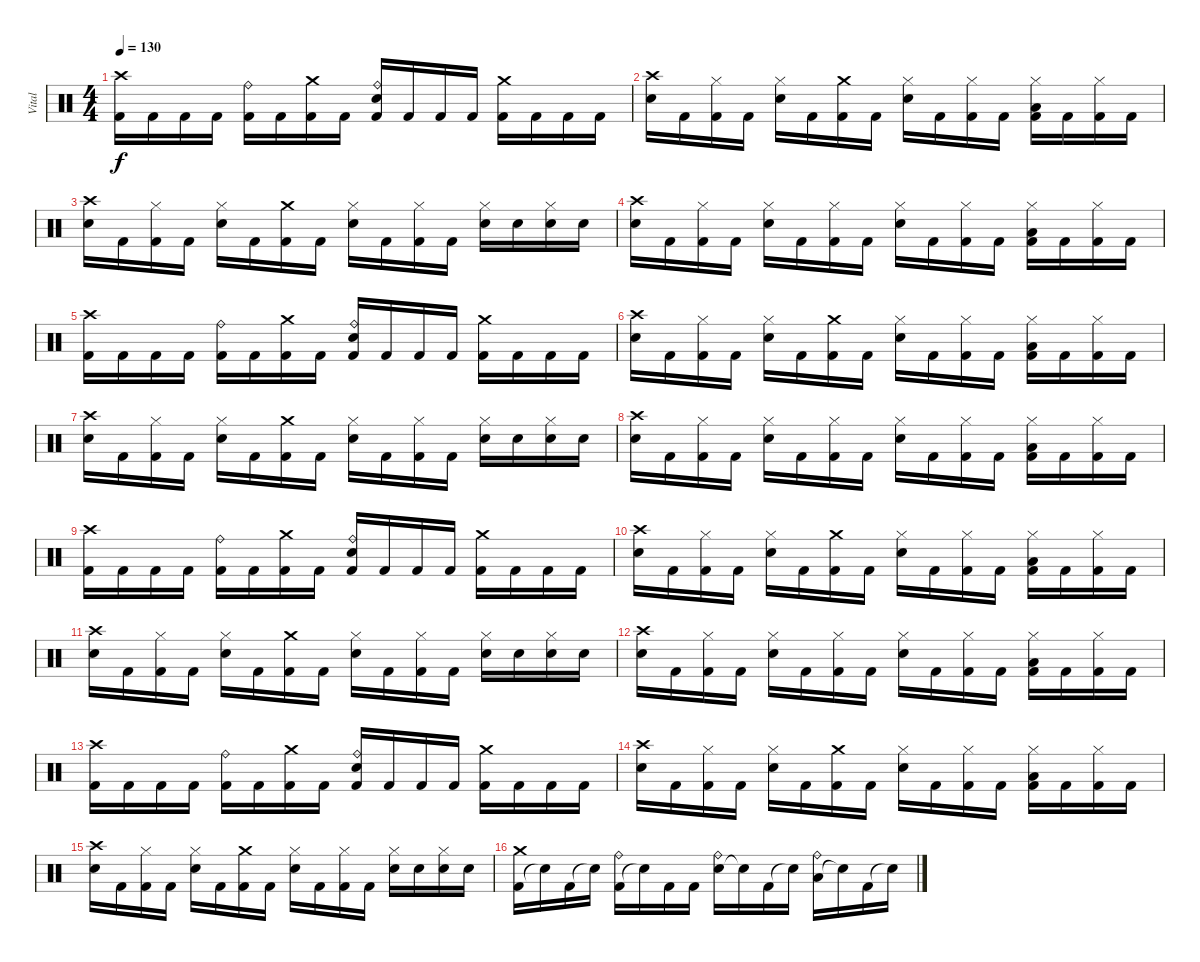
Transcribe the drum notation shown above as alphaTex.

\track ("Vital" "Vital") {instrument percussion}
\staff {score}
\articulation defaults
\ts (4 4)
\tempo 130
\clef neutral
\ks c
("Kick (hit) 2" "Crash high (hit)").16{dy f} "Kick (hit) 2".16 "Kick (hit) 2".16 "Kick (hit) 2".16 ("Kick (hit) 2" "Ride (bell)").16 "Kick (hit) 2".16 ("Kick (hit) 2" "Crash medium (hit)").16 "Kick (hit) 2".16 ("Kick (hit) 2" "Snare (hit) 2" "Ride (bell)").16 "Kick (hit) 2".16 "Kick (hit) 2".16 "Kick (hit) 2".16 ("Kick (hit) 2" "Crash medium (hit)").16 "Kick (hit) 2".16 "Kick (hit) 2".16 "Kick (hit) 2".16 |
("Snare (hit) 2" "Crash high (hit)").16 "Kick (hit) 2".16 ("Kick (hit) 2" "Hi-Hat (closed)").16 "Kick (hit) 2".16 ("Snare (hit) 2" "Hi-Hat (closed)").16 "Kick (hit) 2".16 ("Kick (hit) 2" "Crash medium (hit)").16 "Kick (hit) 2".16 ("Snare (hit) 2" "Hi-Hat (closed)").16 "Kick (hit) 2".16 ("Kick (hit) 2" "Hi-Hat (closed)").16 "Kick (hit) 2".16 ("Kick (hit) 2" "Low Floor Tom (hit)" "Hi-Hat (closed)").16 "Kick (hit) 2".16 ("Kick (hit) 2" "Hi-Hat (closed)").16 "Kick (hit) 2".16 |
("Snare (hit) 2" "Crash high (hit)").16 "Kick (hit) 2".16 ("Kick (hit) 2" "Hi-Hat (closed)").16 "Kick (hit) 2".16 ("Snare (hit) 2" "Hi-Hat (closed)").16 "Kick (hit) 2".16 ("Kick (hit) 2" "Crash medium (hit)").16 "Kick (hit) 2".16 ("Snare (hit) 2" "Hi-Hat (closed)").16 "Kick (hit) 2".16 ("Kick (hit) 2" "Hi-Hat (closed)").16 "Kick (hit) 2".16 ("Snare (hit) 2" "Hi-Hat (closed)").16 "Snare (hit) 2".16 ("Snare (hit) 2" "Hi-Hat (closed)").16 "Snare (hit) 2".16 |
("Snare (hit) 2" "Crash high (hit)").16 "Kick (hit) 2".16 ("Kick (hit) 2" "Hi-Hat (closed)").16 "Kick (hit) 2".16 ("Snare (hit) 2" "Hi-Hat (closed)").16 "Kick (hit) 2".16 ("Kick (hit) 2" "Hi-Hat (closed)").16 "Kick (hit) 2".16 ("Snare (hit) 2" "Hi-Hat (closed)").16 "Kick (hit) 2".16 ("Kick (hit) 2" "Hi-Hat (closed)").16 "Kick (hit) 2".16 ("Kick (hit) 2" "Low Floor Tom (hit)" "Hi-Hat (closed)").16 "Kick (hit) 2".16 ("Kick (hit) 2" "Hi-Hat (closed)").16 "Kick (hit) 2".16 |
("Kick (hit) 2" "Crash high (hit)").16 "Kick (hit) 2".16 "Kick (hit) 2".16 "Kick (hit) 2".16 ("Kick (hit) 2" "Ride (bell)").16 "Kick (hit) 2".16 ("Kick (hit) 2" "Crash medium (hit)").16 "Kick (hit) 2".16 ("Kick (hit) 2" "Snare (hit) 2" "Ride (bell)").16 "Kick (hit) 2".16 "Kick (hit) 2".16 "Kick (hit) 2".16 ("Kick (hit) 2" "Crash medium (hit)").16 "Kick (hit) 2".16 "Kick (hit) 2".16 "Kick (hit) 2".16 |
("Snare (hit) 2" "Crash high (hit)").16 "Kick (hit) 2".16 ("Kick (hit) 2" "Hi-Hat (closed)").16 "Kick (hit) 2".16 ("Snare (hit) 2" "Hi-Hat (closed)").16 "Kick (hit) 2".16 ("Kick (hit) 2" "Crash medium (hit)").16 "Kick (hit) 2".16 ("Snare (hit) 2" "Hi-Hat (closed)").16 "Kick (hit) 2".16 ("Kick (hit) 2" "Hi-Hat (closed)").16 "Kick (hit) 2".16 ("Kick (hit) 2" "Low Floor Tom (hit)" "Hi-Hat (closed)").16 "Kick (hit) 2".16 ("Kick (hit) 2" "Hi-Hat (closed)").16 "Kick (hit) 2".16 |
("Snare (hit) 2" "Crash high (hit)").16 "Kick (hit) 2".16 ("Kick (hit) 2" "Hi-Hat (closed)").16 "Kick (hit) 2".16 ("Snare (hit) 2" "Hi-Hat (closed)").16 "Kick (hit) 2".16 ("Kick (hit) 2" "Crash medium (hit)").16 "Kick (hit) 2".16 ("Snare (hit) 2" "Hi-Hat (closed)").16 "Kick (hit) 2".16 ("Kick (hit) 2" "Hi-Hat (closed)").16 "Kick (hit) 2".16 ("Snare (hit) 2" "Hi-Hat (closed)").16 "Snare (hit) 2".16 ("Snare (hit) 2" "Hi-Hat (closed)").16 "Snare (hit) 2".16 |
("Snare (hit) 2" "Crash high (hit)").16 "Kick (hit) 2".16 ("Kick (hit) 2" "Hi-Hat (closed)").16 "Kick (hit) 2".16 ("Snare (hit) 2" "Hi-Hat (closed)").16 "Kick (hit) 2".16 ("Kick (hit) 2" "Hi-Hat (closed)").16 "Kick (hit) 2".16 ("Snare (hit) 2" "Hi-Hat (closed)").16 "Kick (hit) 2".16 ("Kick (hit) 2" "Hi-Hat (closed)").16 "Kick (hit) 2".16 ("Kick (hit) 2" "Low Floor Tom (hit)" "Hi-Hat (closed)").16 "Kick (hit) 2".16 ("Kick (hit) 2" "Hi-Hat (closed)").16 "Kick (hit) 2".16 |
("Kick (hit) 2" "Crash high (hit)").16 "Kick (hit) 2".16 "Kick (hit) 2".16 "Kick (hit) 2".16 ("Kick (hit) 2" "Ride (bell)").16 "Kick (hit) 2".16 ("Kick (hit) 2" "Crash medium (hit)").16 "Kick (hit) 2".16 ("Kick (hit) 2" "Snare (hit) 2" "Ride (bell)").16 "Kick (hit) 2".16 "Kick (hit) 2".16 "Kick (hit) 2".16 ("Kick (hit) 2" "Crash medium (hit)").16 "Kick (hit) 2".16 "Kick (hit) 2".16 "Kick (hit) 2".16 |
("Snare (hit) 2" "Crash high (hit)").16 "Kick (hit) 2".16 ("Kick (hit) 2" "Hi-Hat (closed)").16 "Kick (hit) 2".16 ("Snare (hit) 2" "Hi-Hat (closed)").16 "Kick (hit) 2".16 ("Kick (hit) 2" "Crash medium (hit)").16 "Kick (hit) 2".16 ("Snare (hit) 2" "Hi-Hat (closed)").16 "Kick (hit) 2".16 ("Kick (hit) 2" "Hi-Hat (closed)").16 "Kick (hit) 2".16 ("Kick (hit) 2" "Low Floor Tom (hit)" "Hi-Hat (closed)").16 "Kick (hit) 2".16 ("Kick (hit) 2" "Hi-Hat (closed)").16 "Kick (hit) 2".16 |
("Snare (hit) 2" "Crash high (hit)").16 "Kick (hit) 2".16 ("Kick (hit) 2" "Hi-Hat (closed)").16 "Kick (hit) 2".16 ("Snare (hit) 2" "Hi-Hat (closed)").16 "Kick (hit) 2".16 ("Kick (hit) 2" "Crash medium (hit)").16 "Kick (hit) 2".16 ("Snare (hit) 2" "Hi-Hat (closed)").16 "Kick (hit) 2".16 ("Kick (hit) 2" "Hi-Hat (closed)").16 "Kick (hit) 2".16 ("Snare (hit) 2" "Hi-Hat (closed)").16 "Snare (hit) 2".16 ("Snare (hit) 2" "Hi-Hat (closed)").16 "Snare (hit) 2".16 |
("Snare (hit) 2" "Crash high (hit)").16 "Kick (hit) 2".16 ("Kick (hit) 2" "Hi-Hat (closed)").16 "Kick (hit) 2".16 ("Snare (hit) 2" "Hi-Hat (closed)").16 "Kick (hit) 2".16 ("Kick (hit) 2" "Hi-Hat (closed)").16 "Kick (hit) 2".16 ("Snare (hit) 2" "Hi-Hat (closed)").16 "Kick (hit) 2".16 ("Kick (hit) 2" "Hi-Hat (closed)").16 "Kick (hit) 2".16 ("Kick (hit) 2" "Low Floor Tom (hit)" "Hi-Hat (closed)").16 "Kick (hit) 2".16 ("Kick (hit) 2" "Hi-Hat (closed)").16 "Kick (hit) 2".16 |
("Kick (hit) 2" "Crash high (hit)").16 "Kick (hit) 2".16 "Kick (hit) 2".16 "Kick (hit) 2".16 ("Kick (hit) 2" "Ride (bell)").16 "Kick (hit) 2".16 ("Kick (hit) 2" "Crash medium (hit)").16 "Kick (hit) 2".16 ("Kick (hit) 2" "Snare (hit) 2" "Ride (bell)").16 "Kick (hit) 2".16 "Kick (hit) 2".16 "Kick (hit) 2".16 ("Kick (hit) 2" "Crash medium (hit)").16 "Kick (hit) 2".16 "Kick (hit) 2".16 "Kick (hit) 2".16 |
("Snare (hit) 2" "Crash high (hit)").16 "Kick (hit) 2".16 ("Kick (hit) 2" "Hi-Hat (closed)").16 "Kick (hit) 2".16 ("Snare (hit) 2" "Hi-Hat (closed)").16 "Kick (hit) 2".16 ("Kick (hit) 2" "Crash medium (hit)").16 "Kick (hit) 2".16 ("Snare (hit) 2" "Hi-Hat (closed)").16 "Kick (hit) 2".16 ("Kick (hit) 2" "Hi-Hat (closed)").16 "Kick (hit) 2".16 ("Kick (hit) 2" "Low Floor Tom (hit)" "Hi-Hat (closed)").16 "Kick (hit) 2".16 ("Kick (hit) 2" "Hi-Hat (closed)").16 "Kick (hit) 2".16 |
("Snare (hit) 2" "Crash high (hit)").16 "Kick (hit) 2".16 ("Kick (hit) 2" "Hi-Hat (closed)").16 "Kick (hit) 2".16 ("Snare (hit) 2" "Hi-Hat (closed)").16 "Kick (hit) 2".16 ("Kick (hit) 2" "Crash medium (hit)").16 "Kick (hit) 2".16 ("Snare (hit) 2" "Hi-Hat (closed)").16 "Kick (hit) 2".16 ("Kick (hit) 2" "Hi-Hat (closed)").16 "Kick (hit) 2".16 ("Snare (hit) 2" "Hi-Hat (closed)").16 "Snare (hit) 2".16 ("Snare (hit) 2" "Hi-Hat (closed)").16 "Snare (hit) 2".16 |
("Kick (hit) 2" "Crash medium (hit)").16 "Snare (hit)"{t}.16 "Kick (hit) 2".16 "Snare (hit)"{t}.16 ("Kick (hit) 2" "Ride (bell)").16 "Snare (hit)"{t}.16 "Kick (hit) 2".16 "Kick (hit) 2".16 ("Snare (hit) 2" "Ride (bell)").16 "Snare (hit)"{t}.16 "Kick (hit) 2".16 "Snare (hit)"{t}.16 ("Low Floor Tom (hit)" "Ride (bell)").16 "Snare (hit)"{t}.16 "Kick (hit) 2".16 "Snare (hit)"{t}.16
